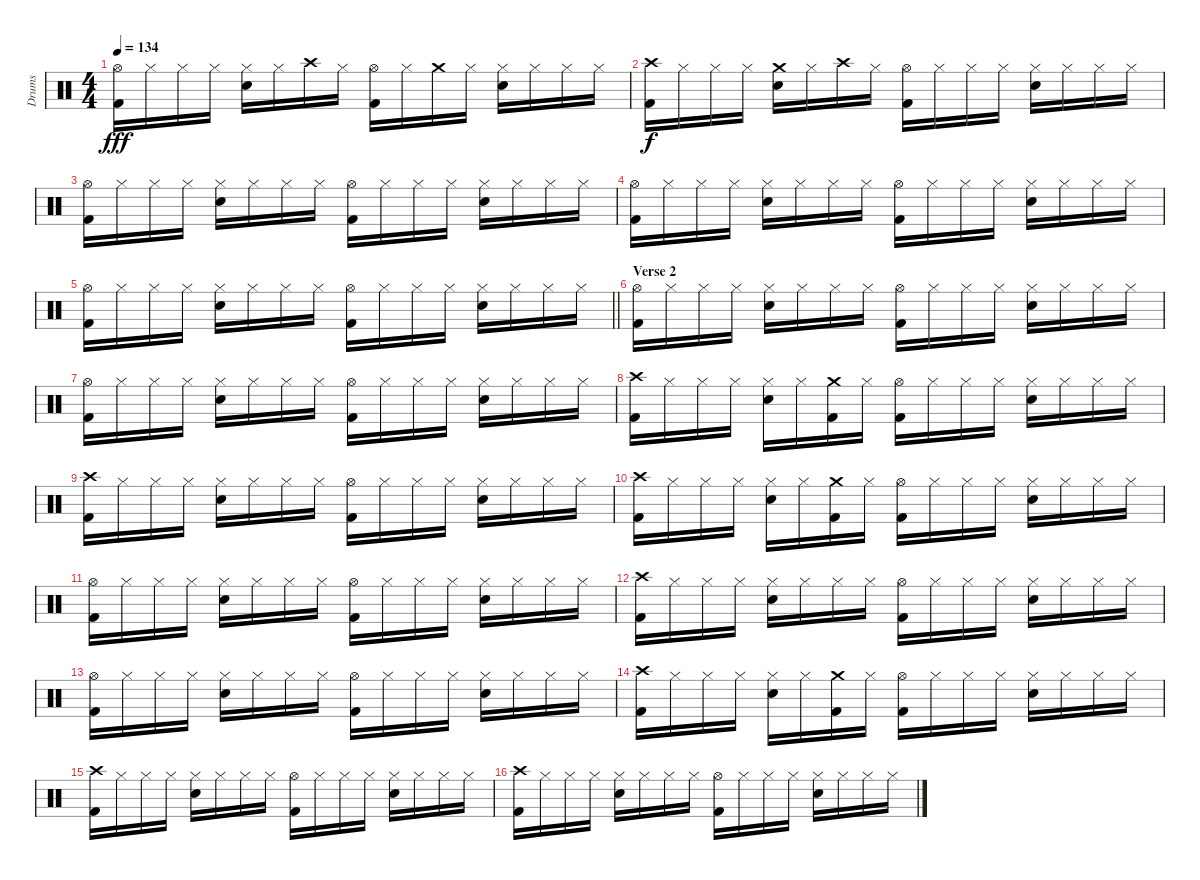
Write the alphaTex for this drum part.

\track ("Drums" "Drums") {instrument percussion}
\staff {score}
\articulation defaults
\ts (4 4)
\tempo 134
\clef neutral
\ks c
("Hi-Hat (open)" "Kick (hit) 2").16{dy fff} "Hi-Hat (closed)".16 "Hi-Hat (closed)".16 "Hi-Hat (closed)".16 ("Hi-Hat (closed)" "Snare (hit) 2").16 "Hi-Hat (closed)".16 "Crash high (hit)".16 "Hi-Hat (closed)".16 ("Hi-Hat (open)" "Kick (hit) 2").16 "Hi-Hat (closed)".16 "Crash medium (hit)".16 "Hi-Hat (closed)".16 ("Hi-Hat (closed)" "Snare (hit) 2").16 "Hi-Hat (closed)".16 "Hi-Hat (closed)".16 "Hi-Hat (closed)".16 |
("Crash high (hit)" "Kick (hit) 2").16{dy f} "Hi-Hat (closed)".16 "Hi-Hat (closed)".16 "Hi-Hat (closed)".16 ("Crash medium (hit)" "Snare (hit) 2").16 "Hi-Hat (closed)".16 "Crash high (hit)".16 "Hi-Hat (closed)".16 ("Hi-Hat (open)" "Kick (hit) 2").16 "Hi-Hat (closed)".16 "Hi-Hat (closed)".16 "Hi-Hat (closed)".16 ("Hi-Hat (closed)" "Snare (hit) 2").16 "Hi-Hat (closed)".16 "Hi-Hat (closed)".16 "Hi-Hat (closed)".16 |
("Hi-Hat (open)" "Kick (hit) 2").16 "Hi-Hat (closed)".16 "Hi-Hat (closed)".16 "Hi-Hat (closed)".16 ("Hi-Hat (closed)" "Snare (hit) 2").16 "Hi-Hat (closed)".16 "Hi-Hat (closed)".16 "Hi-Hat (closed)".16 ("Hi-Hat (open)" "Kick (hit) 2").16 "Hi-Hat (closed)".16 "Hi-Hat (closed)".16 "Hi-Hat (closed)".16 ("Hi-Hat (closed)" "Snare (hit) 2").16 "Hi-Hat (closed)".16 "Hi-Hat (closed)".16 "Hi-Hat (closed)".16 |
("Hi-Hat (open)" "Kick (hit) 2").16 "Hi-Hat (closed)".16 "Hi-Hat (closed)".16 "Hi-Hat (closed)".16 ("Hi-Hat (closed)" "Snare (hit) 2").16 "Hi-Hat (closed)".16 "Hi-Hat (closed)".16 "Hi-Hat (closed)".16 ("Hi-Hat (open)" "Kick (hit) 2").16 "Hi-Hat (closed)".16 "Hi-Hat (closed)".16 "Hi-Hat (closed)".16 ("Hi-Hat (closed)" "Snare (hit) 2").16 "Hi-Hat (closed)".16 "Hi-Hat (closed)".16 "Hi-Hat (closed)".16 |
\barLineRight lightlight
("Hi-Hat (open)" "Kick (hit) 2").16 "Hi-Hat (closed)".16 "Hi-Hat (closed)".16 "Hi-Hat (closed)".16 ("Hi-Hat (closed)" "Snare (hit) 2").16 "Hi-Hat (closed)".16 "Hi-Hat (closed)".16 "Hi-Hat (closed)".16 ("Hi-Hat (open)" "Kick (hit) 2").16 "Hi-Hat (closed)".16 "Hi-Hat (closed)".16 "Hi-Hat (closed)".16 ("Hi-Hat (closed)" "Snare (hit) 2").16 "Hi-Hat (closed)".16 "Hi-Hat (closed)".16 "Hi-Hat (closed)".16 |
\section ("" "Verse 2")
("Hi-Hat (open)" "Kick (hit) 2").16 "Hi-Hat (closed)".16 "Hi-Hat (closed)".16 "Hi-Hat (closed)".16 ("Hi-Hat (closed)" "Snare (hit) 2").16 "Hi-Hat (closed)".16 "Hi-Hat (closed)".16 "Hi-Hat (closed)".16 ("Hi-Hat (open)" "Kick (hit) 2").16 "Hi-Hat (closed)".16 "Hi-Hat (closed)".16 "Hi-Hat (closed)".16 ("Hi-Hat (closed)" "Snare (hit) 2").16 "Hi-Hat (closed)".16 "Hi-Hat (closed)".16 "Hi-Hat (closed)".16 |
("Hi-Hat (open)" "Kick (hit) 2").16 "Hi-Hat (closed)".16 "Hi-Hat (closed)".16 "Hi-Hat (closed)".16 ("Hi-Hat (closed)" "Snare (hit) 2").16 "Hi-Hat (closed)".16 "Hi-Hat (closed)".16 "Hi-Hat (closed)".16 ("Hi-Hat (open)" "Kick (hit) 2").16 "Hi-Hat (closed)".16 "Hi-Hat (closed)".16 "Hi-Hat (closed)".16 ("Hi-Hat (closed)" "Snare (hit) 2").16 "Hi-Hat (closed)".16 "Hi-Hat (closed)".16 "Hi-Hat (closed)".16 |
("Crash high (hit)" "Kick (hit) 2").16 "Hi-Hat (closed)".16 "Hi-Hat (closed)".16 "Hi-Hat (closed)".16 ("Hi-Hat (closed)" "Snare (hit) 2").16 "Hi-Hat (closed)".16 ("Crash medium (hit)" "Kick (hit) 2").16 "Hi-Hat (closed)".16 ("Hi-Hat (open)" "Kick (hit) 2").16 "Hi-Hat (closed)".16 "Hi-Hat (closed)".16 "Hi-Hat (closed)".16 ("Hi-Hat (closed)" "Snare (hit) 2").16 "Hi-Hat (closed)".16 "Hi-Hat (closed)".16 "Hi-Hat (closed)".16 |
("Crash high (hit)" "Kick (hit) 2").16 "Hi-Hat (closed)".16 "Hi-Hat (closed)".16 "Hi-Hat (closed)".16 ("Hi-Hat (closed)" "Snare (hit) 2").16 "Hi-Hat (closed)".16 "Hi-Hat (closed)".16 "Hi-Hat (closed)".16 ("Hi-Hat (open)" "Kick (hit) 2").16 "Hi-Hat (closed)".16 "Hi-Hat (closed)".16 "Hi-Hat (closed)".16 ("Hi-Hat (closed)" "Snare (hit) 2").16 "Hi-Hat (closed)".16 "Hi-Hat (closed)".16 "Hi-Hat (closed)".16 |
("Crash high (hit)" "Kick (hit) 2").16 "Hi-Hat (closed)".16 "Hi-Hat (closed)".16 "Hi-Hat (closed)".16 ("Hi-Hat (closed)" "Snare (hit) 2").16 "Hi-Hat (closed)".16 ("Crash medium (hit)" "Kick (hit) 2").16 "Hi-Hat (closed)".16 ("Hi-Hat (open)" "Kick (hit) 2").16 "Hi-Hat (closed)".16 "Hi-Hat (closed)".16 "Hi-Hat (closed)".16 ("Hi-Hat (closed)" "Snare (hit) 2").16 "Hi-Hat (closed)".16 "Hi-Hat (closed)".16 "Hi-Hat (closed)".16 |
("Hi-Hat (open)" "Kick (hit) 2").16 "Hi-Hat (closed)".16 "Hi-Hat (closed)".16 "Hi-Hat (closed)".16 ("Hi-Hat (closed)" "Snare (hit) 2").16 "Hi-Hat (closed)".16 "Hi-Hat (closed)".16 "Hi-Hat (closed)".16 ("Hi-Hat (open)" "Kick (hit) 2").16 "Hi-Hat (closed)".16 "Hi-Hat (closed)".16 "Hi-Hat (closed)".16 ("Hi-Hat (closed)" "Snare (hit) 2").16 "Hi-Hat (closed)".16 "Hi-Hat (closed)".16 "Hi-Hat (closed)".16 |
("Crash high (hit)" "Kick (hit) 2").16 "Hi-Hat (closed)".16 "Hi-Hat (closed)".16 "Hi-Hat (closed)".16 ("Hi-Hat (closed)" "Snare (hit) 2").16 "Hi-Hat (closed)".16 "Hi-Hat (closed)".16 "Hi-Hat (closed)".16 ("Hi-Hat (open)" "Kick (hit) 2").16 "Hi-Hat (closed)".16 "Hi-Hat (closed)".16 "Hi-Hat (closed)".16 ("Hi-Hat (closed)" "Snare (hit) 2").16 "Hi-Hat (closed)".16 "Hi-Hat (closed)".16 "Hi-Hat (closed)".16 |
("Hi-Hat (open)" "Kick (hit) 2").16 "Hi-Hat (closed)".16 "Hi-Hat (closed)".16 "Hi-Hat (closed)".16 ("Hi-Hat (closed)" "Snare (hit) 2").16 "Hi-Hat (closed)".16 "Hi-Hat (closed)".16 "Hi-Hat (closed)".16 ("Hi-Hat (open)" "Kick (hit) 2").16 "Hi-Hat (closed)".16 "Hi-Hat (closed)".16 "Hi-Hat (closed)".16 ("Hi-Hat (closed)" "Snare (hit) 2").16 "Hi-Hat (closed)".16 "Hi-Hat (closed)".16 "Hi-Hat (closed)".16 |
("Crash high (hit)" "Kick (hit) 2").16 "Hi-Hat (closed)".16 "Hi-Hat (closed)".16 "Hi-Hat (closed)".16 ("Hi-Hat (closed)" "Snare (hit) 2").16 "Hi-Hat (closed)".16 ("Crash medium (hit)" "Kick (hit) 2").16 "Hi-Hat (closed)".16 ("Hi-Hat (open)" "Kick (hit) 2").16 "Hi-Hat (closed)".16 "Hi-Hat (closed)".16 "Hi-Hat (closed)".16 ("Hi-Hat (closed)" "Snare (hit) 2").16 "Hi-Hat (closed)".16 "Hi-Hat (closed)".16 "Hi-Hat (closed)".16 |
("Crash high (hit)" "Kick (hit) 2").16 "Hi-Hat (closed)".16 "Hi-Hat (closed)".16 "Hi-Hat (closed)".16 ("Hi-Hat (closed)" "Snare (hit) 2").16 "Hi-Hat (closed)".16 "Hi-Hat (closed)".16 "Hi-Hat (closed)".16 ("Hi-Hat (open)" "Kick (hit) 2").16 "Hi-Hat (closed)".16 "Hi-Hat (closed)".16 "Hi-Hat (closed)".16 ("Hi-Hat (closed)" "Snare (hit) 2").16 "Hi-Hat (closed)".16 "Hi-Hat (closed)".16 "Hi-Hat (closed)".16 |
("Crash high (hit)" "Kick (hit) 2").16 "Hi-Hat (closed)".16 "Hi-Hat (closed)".16 "Hi-Hat (closed)".16 ("Hi-Hat (closed)" "Snare (hit) 2").16 "Hi-Hat (closed)".16 "Hi-Hat (closed)".16 "Hi-Hat (closed)".16 ("Hi-Hat (open)" "Kick (hit) 2").16 "Hi-Hat (closed)".16 "Hi-Hat (closed)".16 "Hi-Hat (closed)".16 ("Hi-Hat (closed)" "Snare (hit) 2").16 "Hi-Hat (closed)".16 "Hi-Hat (closed)".16 "Hi-Hat (closed)".16
